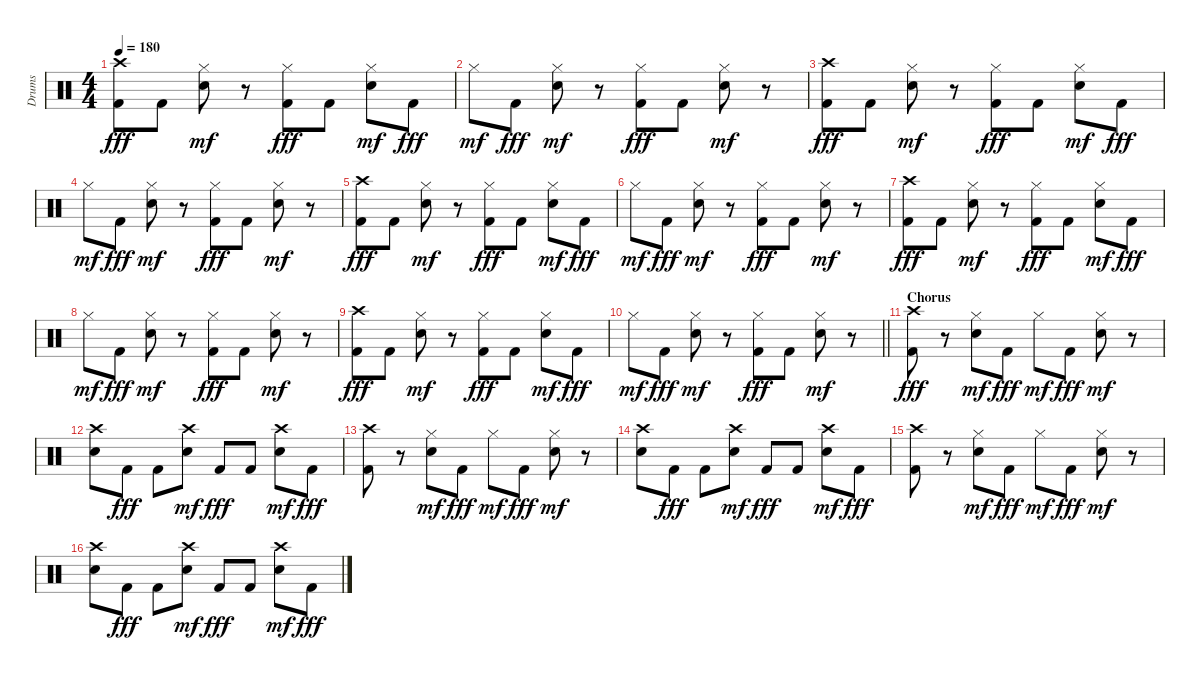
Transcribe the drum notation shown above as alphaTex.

\track ("Drums" "Drums") {instrument percussion}
\staff {score}
\articulation defaults
\ts (4 4)
\tempo 180
\clef neutral
\ks c
("Crash high (hit)" "Kick (hit) 2").8{dy fff} "Kick (hit) 2".8 ("Hi-Hat (closed)" "Electric Snare (hit)").8{dy mf} r.8 ("Hi-Hat (closed)" "Kick (hit) 2").8{dy fff} "Kick (hit) 2".8 ("Hi-Hat (closed)" "Electric Snare (hit)").8{dy mf} "Kick (hit) 2".8{dy fff} |
"Hi-Hat (closed)".8{dy mf} "Kick (hit) 2".8{dy fff} ("Hi-Hat (closed)" "Electric Snare (hit)").8{dy mf} r.8 ("Hi-Hat (closed)" "Kick (hit) 2").8{dy fff} "Kick (hit) 2".8 ("Hi-Hat (closed)" "Electric Snare (hit)").8{dy mf} r.8 |
("Crash high (hit)" "Kick (hit) 2").8{dy fff} "Kick (hit) 2".8 ("Hi-Hat (closed)" "Electric Snare (hit)").8{dy mf} r.8 ("Hi-Hat (closed)" "Kick (hit) 2").8{dy fff} "Kick (hit) 2".8 ("Hi-Hat (closed)" "Electric Snare (hit)").8{dy mf} "Kick (hit) 2".8{dy fff} |
"Hi-Hat (closed)".8{dy mf} "Kick (hit) 2".8{dy fff} ("Hi-Hat (closed)" "Electric Snare (hit)").8{dy mf} r.8 ("Hi-Hat (closed)" "Kick (hit) 2").8{dy fff} "Kick (hit) 2".8 ("Hi-Hat (closed)" "Electric Snare (hit)").8{dy mf} r.8 |
("Crash high (hit)" "Kick (hit) 2").8{dy fff} "Kick (hit) 2".8 ("Hi-Hat (closed)" "Electric Snare (hit)").8{dy mf} r.8 ("Hi-Hat (closed)" "Kick (hit) 2").8{dy fff} "Kick (hit) 2".8 ("Hi-Hat (closed)" "Electric Snare (hit)").8{dy mf} "Kick (hit) 2".8{dy fff} |
"Hi-Hat (closed)".8{dy mf} "Kick (hit) 2".8{dy fff} ("Hi-Hat (closed)" "Electric Snare (hit)").8{dy mf} r.8 ("Hi-Hat (closed)" "Kick (hit) 2").8{dy fff} "Kick (hit) 2".8 ("Hi-Hat (closed)" "Electric Snare (hit)").8{dy mf} r.8 |
("Crash high (hit)" "Kick (hit) 2").8{dy fff} "Kick (hit) 2".8 ("Hi-Hat (closed)" "Electric Snare (hit)").8{dy mf} r.8 ("Hi-Hat (closed)" "Kick (hit) 2").8{dy fff} "Kick (hit) 2".8 ("Hi-Hat (closed)" "Electric Snare (hit)").8{dy mf} "Kick (hit) 2".8{dy fff} |
"Hi-Hat (closed)".8{dy mf} "Kick (hit) 2".8{dy fff} ("Hi-Hat (closed)" "Electric Snare (hit)").8{dy mf} r.8 ("Hi-Hat (closed)" "Kick (hit) 2").8{dy fff} "Kick (hit) 2".8 ("Hi-Hat (closed)" "Electric Snare (hit)").8{dy mf} r.8 |
("Crash high (hit)" "Kick (hit) 2").8{dy fff} "Kick (hit) 2".8 ("Hi-Hat (closed)" "Electric Snare (hit)").8{dy mf} r.8 ("Hi-Hat (closed)" "Kick (hit) 2").8{dy fff} "Kick (hit) 2".8 ("Hi-Hat (closed)" "Electric Snare (hit)").8{dy mf} "Kick (hit) 2".8{dy fff} |
\barLineRight lightlight "Hi-Hat (closed)".8{dy mf} "Kick (hit) 2".8{dy fff}
("Hi-Hat (closed)" "Electric Snare (hit)").8{dy mf} r.8 ("Hi-Hat (closed)" "Kick (hit) 2").8{dy fff} "Kick (hit) 2".8 ("Hi-Hat (closed)" "Electric Snare (hit)").8{dy mf} r.8 |
\section ("" "Chorus")
("Crash high (hit)" "Kick (hit) 2").8{dy fff} r.8 ("Hi-Hat (closed)" "Electric Snare (hit)").8{dy mf} "Kick (hit) 2".8{dy fff} "Hi-Hat (closed)".8{dy mf} "Kick (hit) 2".8{dy fff} ("Hi-Hat (closed)" "Electric Snare (hit)").8{dy mf} r.8 |
("Crash high (hit)" "Electric Snare (hit)").8 "Kick (hit) 2".8{dy fff} "Kick (hit) 2".8 ("Crash high (hit)" "Electric Snare (hit)").8{dy mf} "Kick (hit) 2".8{dy fff} "Kick (hit) 2".8 ("Crash high (hit)" "Electric Snare (hit)").8{dy mf} "Kick (hit) 2".8{dy fff} |
("Crash high (hit)" "Kick (hit) 2").8 r.8 ("Hi-Hat (closed)" "Electric Snare (hit)").8{dy mf} "Kick (hit) 2".8{dy fff} "Hi-Hat (closed)".8{dy mf} "Kick (hit) 2".8{dy fff} ("Hi-Hat (closed)" "Electric Snare (hit)").8{dy mf} r.8 |
("Crash high (hit)" "Electric Snare (hit)").8 "Kick (hit) 2".8{dy fff} "Kick (hit) 2".8 ("Crash high (hit)" "Electric Snare (hit)").8{dy mf} "Kick (hit) 2".8{dy fff} "Kick (hit) 2".8 ("Crash high (hit)" "Electric Snare (hit)").8{dy mf} "Kick (hit) 2".8{dy fff} |
("Crash high (hit)" "Kick (hit) 2").8 r.8 ("Hi-Hat (closed)" "Electric Snare (hit)").8{dy mf} "Kick (hit) 2".8{dy fff} "Hi-Hat (closed)".8{dy mf} "Kick (hit) 2".8{dy fff} ("Hi-Hat (closed)" "Electric Snare (hit)").8{dy mf} r.8 |
("Crash high (hit)" "Electric Snare (hit)").8 "Kick (hit) 2".8{dy fff} "Kick (hit) 2".8 ("Crash high (hit)" "Electric Snare (hit)").8{dy mf} "Kick (hit) 2".8{dy fff} "Kick (hit) 2".8 ("Crash high (hit)" "Electric Snare (hit)").8{dy mf} "Kick (hit) 2".8{dy fff}
